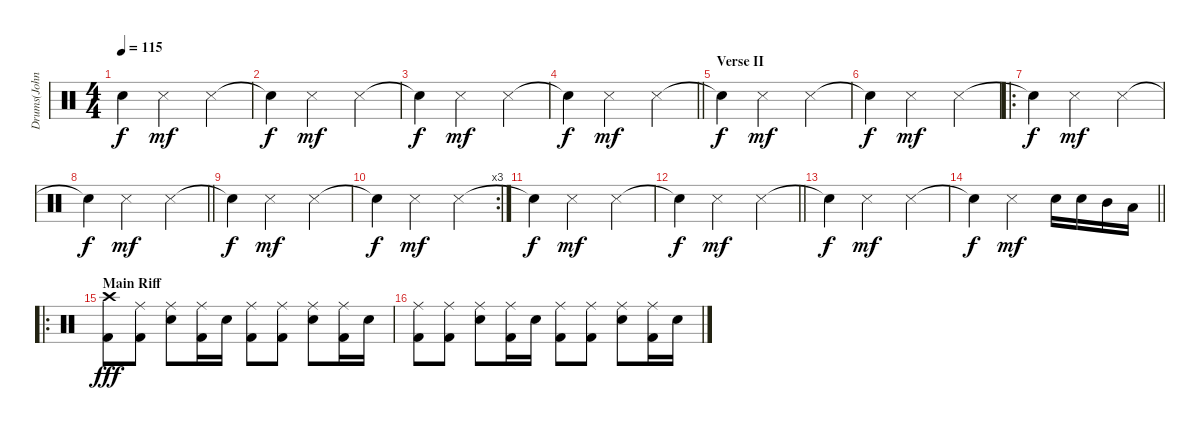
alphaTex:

\track ("Drums(John)" "Drums(John") {instrument percussion}
\staff {score}
\articulation defaults
\ts (4 4)
\section ("" "")
\tempo 115
\clef neutral
\ks c "Snare (hit)"{t}.4{dy f} "Snare (side stick) 3".2{dy mf} "Snare (side stick) 3".4
|
"Snare (hit)"{t}.4{dy f} "Snare (side stick) 3".2{dy mf} "Snare (side stick) 3".4 |
"Snare (hit)"{t}.4{dy f} "Snare (side stick) 3".2{dy mf} "Snare (side stick) 3".4 |
\barLineRight lightlight "Snare (hit)"{t}.4{dy f} "Snare (side stick) 3".2{dy mf} "Snare (side stick) 3".4
|
\section ("" "Verse II")
"Snare (hit)"{t}.4{dy f} "Snare (side stick) 3".2{dy mf} "Snare (side stick) 3".4 |
"Snare (hit)"{t}.4{dy f} "Snare (side stick) 3".2{dy mf} "Snare (side stick) 3".4 |
\ro "Snare (hit)"{t}.4{dy f} "Snare (side stick) 3".2{dy mf} "Snare (side stick) 3".4
|
\barLineRight lightlight "Snare (hit)"{t}.4{dy f} "Snare (side stick) 3".2{dy mf} "Snare (side stick) 3".4
|
\section ("" "")
"Snare (hit)"{t}.4{dy f} "Snare (side stick) 3".2{dy mf} "Snare (side stick) 3".4 |
\rc 3 "Snare (hit)"{t}.4{dy f} "Snare (side stick) 3".2{dy mf} "Snare (side stick) 3".4
|
"Snare (hit)"{t}.4{dy f} "Snare (side stick) 3".2{dy mf} "Snare (side stick) 3".4 |
\barLineRight lightlight "Snare (hit)"{t}.4{dy f} "Snare (side stick) 3".2{dy mf} "Snare (side stick) 3".4
|
\section ("" "")
"Snare (hit)"{t}.4{dy f} "Snare (side stick) 3".2{dy mf} "Snare (side stick) 3".4 |
\barLineRight lightlight "Snare (hit)"{t}.4{dy f} "Snare (side stick) 3".2{dy mf} "Snare (hit) 2".16 "Snare (hit) 2".16 "Mid Tom (hit)".16 "Low Tom (hit)".16
|
\ro
\section ("" "Main Riff")
("Crash high (hit)" "Kick (hit) 2").8{dy fff volume 12} ("Ride (middle)" "Kick (hit) 2").8 ("Ride (middle)" "Snare (hit) 2").8 ("Ride (middle)" "Kick (hit) 2").16 "Snare (hit) 2".16 ("Ride (middle)" "Kick (hit) 2").8 ("Ride (middle)" "Kick (hit) 2").8 ("Ride (middle)" "Snare (hit) 2").8 ("Ride (middle)" "Kick (hit) 2").16 "Snare (hit) 2".16 |
("Ride (middle)" "Kick (hit) 2").8 ("Ride (middle)" "Kick (hit) 2").8 ("Ride (middle)" "Snare (hit) 2").8 ("Ride (middle)" "Kick (hit) 2").16 "Snare (hit) 2".16 ("Ride (middle)" "Kick (hit) 2").8 ("Ride (middle)" "Kick (hit) 2").8 ("Ride (middle)" "Snare (hit) 2").8 ("Ride (middle)" "Kick (hit) 2").16 "Snare (hit) 2".16
